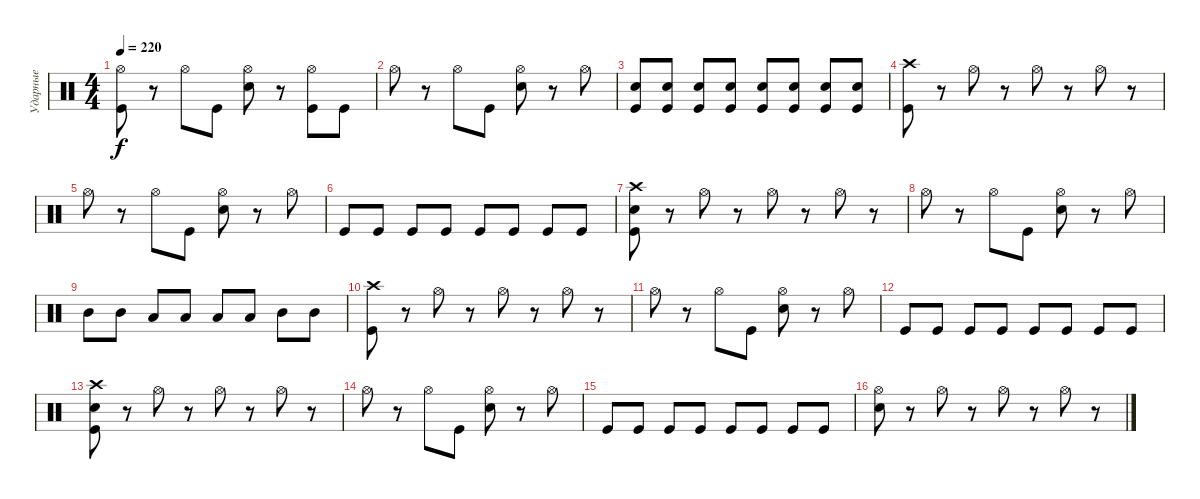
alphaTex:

\track ("Ударные" "Ударные") {instrument percussion}
\staff {score}
\articulation defaults
\ts (4 4)
\tempo 220
\clef neutral
\ks c
("Hi-Hat (open)" "Kick (hit)").8{dy f} r.8 "Hi-Hat (open)".8 "Kick (hit)".8 ("Hi-Hat (open)" "Electric Snare (hit)").8 r.8 ("Hi-Hat (open)" "Kick (hit)").8 "Kick (hit)".8 |
"Hi-Hat (open)".8 r.8 "Hi-Hat (open)".8 "Kick (hit)".8 ("Hi-Hat (open)" "Electric Snare (hit)").8 r.8 "Hi-Hat (open)".8 |
("Electric Snare (hit)" "Kick (hit)").8 ("Electric Snare (hit)" "Kick (hit)").8 ("Electric Snare (hit)" "Kick (hit)").8 ("Electric Snare (hit)" "Kick (hit)").8 ("Electric Snare (hit)" "Kick (hit)").8 ("Electric Snare (hit)" "Kick (hit)").8 ("Electric Snare (hit)" "Kick (hit)").8 ("Electric Snare (hit)" "Kick (hit)").8 |
("Kick (hit)" "Crash high (hit)").8 r.8 "Hi-Hat (open)".8 r.8 "Hi-Hat (open)".8 r.8 "Hi-Hat (open)".8 r.8 |
"Hi-Hat (open)".8 r.8 "Hi-Hat (open)".8 "Kick (hit)".8 ("Hi-Hat (open)" "Electric Snare (hit)").8 r.8 "Hi-Hat (open)".8 |
"Kick (hit)".8 "Kick (hit)".8 "Kick (hit)".8 "Kick (hit)".8 "Kick (hit)".8 "Kick (hit)".8 "Kick (hit)".8 "Kick (hit)".8 |
("Kick (hit)" "Electric Snare (hit)" "Crash high (hit)").8 r.8 "Hi-Hat (open)".8 r.8 "Hi-Hat (open)".8 r.8 "Hi-Hat (open)".8 r.8 |
"Hi-Hat (open)".8 r.8 "Hi-Hat (open)".8 "Kick (hit)".8 ("Hi-Hat (open)" "Electric Snare (hit)").8 r.8 "Hi-Hat (open)".8 |
"Mid Tom (hit)".8 "Mid Tom (hit)".8 "Low Tom (hit)".8 "Low Tom (hit)".8 "Low Floor Tom (hit)".8 "Low Floor Tom (hit)".8 "Mid Tom (hit)".8 "Mid Tom (hit)".8 |
("Kick (hit)" "Crash high (hit)").8 r.8 "Hi-Hat (open)".8 r.8 "Hi-Hat (open)".8 r.8 "Hi-Hat (open)".8 r.8 |
"Hi-Hat (open)".8 r.8 "Hi-Hat (open)".8 "Kick (hit)".8 ("Hi-Hat (open)" "Electric Snare (hit)").8 r.8 "Hi-Hat (open)".8 |
"Kick (hit)".8 "Kick (hit)".8 "Kick (hit)".8 "Kick (hit)".8 "Kick (hit)".8 "Kick (hit)".8 "Kick (hit)".8 "Kick (hit)".8 |
("Kick (hit)" "Electric Snare (hit)" "Crash high (hit)").8 r.8 "Hi-Hat (open)".8 r.8 "Hi-Hat (open)".8 r.8 "Hi-Hat (open)".8 r.8 |
"Hi-Hat (open)".8 r.8 "Hi-Hat (open)".8 "Kick (hit)".8 ("Hi-Hat (open)" "Electric Snare (hit)").8 r.8 "Hi-Hat (open)".8 |
"Kick (hit)".8 "Kick (hit)".8 "Kick (hit)".8 "Kick (hit)".8 "Kick (hit)".8 "Kick (hit)".8 "Kick (hit)".8 "Kick (hit)".8 |
("Hi-Hat (open)" "Electric Snare (hit)").8 r.8 "Hi-Hat (open)".8 r.8 "Hi-Hat (open)".8 r.8 "Hi-Hat (open)".8 r.8
